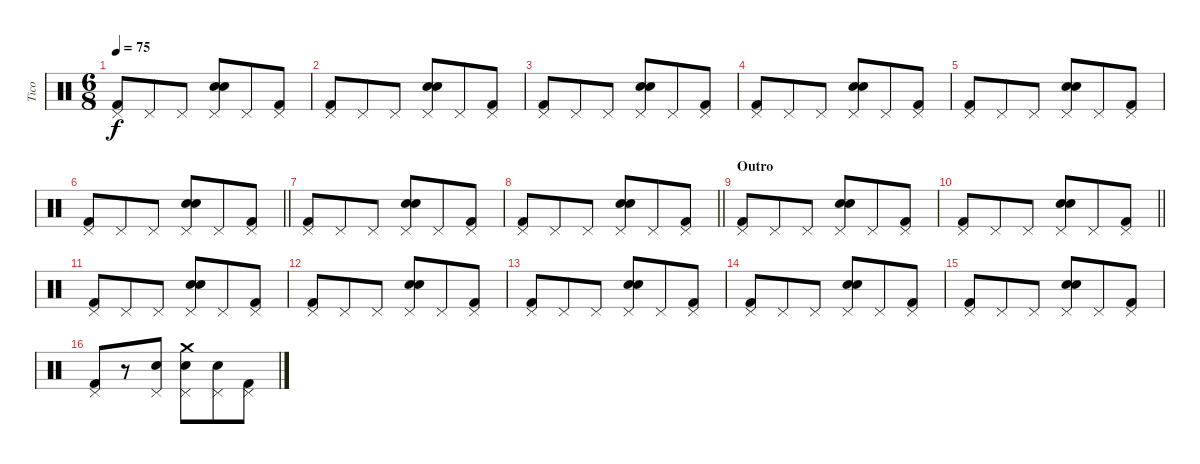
\track ("Tico" "Tico") {instrument percussion}
\staff {score}
\articulation defaults
\ts (6 8)
\tempo 75
\clef neutral
\ks c
("Kick (hit) 2" "Pedal Hi-Hat (hit)").8{dy f} "Pedal Hi-Hat (hit)".8 "Pedal Hi-Hat (hit)".8 ("Electric Snare (hit)" "Snare (hit) 2" "Pedal Hi-Hat (hit)").8 "Pedal Hi-Hat (hit)".8 ("Kick (hit) 2" "Pedal Hi-Hat (hit)").8 |
("Kick (hit) 2" "Pedal Hi-Hat (hit)").8 "Pedal Hi-Hat (hit)".8 "Pedal Hi-Hat (hit)".8 ("Electric Snare (hit)" "Snare (hit) 2" "Pedal Hi-Hat (hit)").8 "Pedal Hi-Hat (hit)".8 ("Kick (hit) 2" "Pedal Hi-Hat (hit)").8 |
("Kick (hit) 2" "Pedal Hi-Hat (hit)").8 "Pedal Hi-Hat (hit)".8 "Pedal Hi-Hat (hit)".8 ("Electric Snare (hit)" "Snare (hit) 2" "Pedal Hi-Hat (hit)").8 "Pedal Hi-Hat (hit)".8 ("Kick (hit) 2" "Pedal Hi-Hat (hit)").8 |
("Kick (hit) 2" "Pedal Hi-Hat (hit)").8 "Pedal Hi-Hat (hit)".8 "Pedal Hi-Hat (hit)".8 ("Electric Snare (hit)" "Snare (hit) 2" "Pedal Hi-Hat (hit)").8 "Pedal Hi-Hat (hit)".8 ("Kick (hit) 2" "Pedal Hi-Hat (hit)").8 |
("Kick (hit) 2" "Pedal Hi-Hat (hit)").8 "Pedal Hi-Hat (hit)".8 "Pedal Hi-Hat (hit)".8 ("Electric Snare (hit)" "Snare (hit) 2" "Pedal Hi-Hat (hit)").8 "Pedal Hi-Hat (hit)".8 ("Kick (hit) 2" "Pedal Hi-Hat (hit)").8 |
\barLineRight lightlight
("Kick (hit) 2" "Pedal Hi-Hat (hit)").8 "Pedal Hi-Hat (hit)".8 "Pedal Hi-Hat (hit)".8 ("Electric Snare (hit)" "Snare (hit) 2" "Pedal Hi-Hat (hit)").8 "Pedal Hi-Hat (hit)".8 ("Kick (hit) 2" "Pedal Hi-Hat (hit)").8 |
("Kick (hit) 2" "Pedal Hi-Hat (hit)").8 "Pedal Hi-Hat (hit)".8 "Pedal Hi-Hat (hit)".8 ("Electric Snare (hit)" "Snare (hit) 2" "Pedal Hi-Hat (hit)").8 "Pedal Hi-Hat (hit)".8 ("Kick (hit) 2" "Pedal Hi-Hat (hit)").8 |
\barLineRight lightlight
("Kick (hit) 2" "Pedal Hi-Hat (hit)").8 "Pedal Hi-Hat (hit)".8 "Pedal Hi-Hat (hit)".8 ("Electric Snare (hit)" "Snare (hit) 2" "Pedal Hi-Hat (hit)").8 "Pedal Hi-Hat (hit)".8 ("Kick (hit) 2" "Pedal Hi-Hat (hit)").8 |
\section ("" "Outro")
("Kick (hit) 2" "Pedal Hi-Hat (hit)").8 "Pedal Hi-Hat (hit)".8 "Pedal Hi-Hat (hit)".8 ("Electric Snare (hit)" "Snare (hit) 2" "Pedal Hi-Hat (hit)").8 "Pedal Hi-Hat (hit)".8 ("Kick (hit) 2" "Pedal Hi-Hat (hit)").8 |
\barLineRight lightlight
("Kick (hit) 2" "Pedal Hi-Hat (hit)").8 "Pedal Hi-Hat (hit)".8 "Pedal Hi-Hat (hit)".8 ("Electric Snare (hit)" "Snare (hit) 2" "Pedal Hi-Hat (hit)").8 "Pedal Hi-Hat (hit)".8 ("Kick (hit) 2" "Pedal Hi-Hat (hit)").8 |
("Kick (hit) 2" "Pedal Hi-Hat (hit)").8 "Pedal Hi-Hat (hit)".8 "Pedal Hi-Hat (hit)".8 ("Electric Snare (hit)" "Snare (hit) 2" "Pedal Hi-Hat (hit)").8 "Pedal Hi-Hat (hit)".8 ("Kick (hit) 2" "Pedal Hi-Hat (hit)").8 |
("Kick (hit) 2" "Pedal Hi-Hat (hit)").8 "Pedal Hi-Hat (hit)".8 "Pedal Hi-Hat (hit)".8 ("Electric Snare (hit)" "Snare (hit) 2" "Pedal Hi-Hat (hit)").8 "Pedal Hi-Hat (hit)".8 ("Kick (hit) 2" "Pedal Hi-Hat (hit)").8 |
("Kick (hit) 2" "Pedal Hi-Hat (hit)").8 "Pedal Hi-Hat (hit)".8 "Pedal Hi-Hat (hit)".8 ("Electric Snare (hit)" "Snare (hit) 2" "Pedal Hi-Hat (hit)").8 "Pedal Hi-Hat (hit)".8 ("Kick (hit) 2" "Pedal Hi-Hat (hit)").8 |
("Kick (hit) 2" "Pedal Hi-Hat (hit)").8 "Pedal Hi-Hat (hit)".8 "Pedal Hi-Hat (hit)".8 ("Electric Snare (hit)" "Snare (hit) 2" "Pedal Hi-Hat (hit)").8 "Pedal Hi-Hat (hit)".8 ("Kick (hit) 2" "Pedal Hi-Hat (hit)").8 |
("Kick (hit) 2" "Pedal Hi-Hat (hit)").8 "Pedal Hi-Hat (hit)".8 "Pedal Hi-Hat (hit)".8 ("Electric Snare (hit)" "Snare (hit) 2" "Pedal Hi-Hat (hit)").8 "Pedal Hi-Hat (hit)".8 ("Kick (hit) 2" "Pedal Hi-Hat (hit)").8 |
("Kick (hit) 2" "Pedal Hi-Hat (hit)").8 r.8 ("Snare (hit) 2" "Pedal Hi-Hat (hit)").8 ("Crash medium (hit)" "Snare (hit) 2" "Pedal Hi-Hat (hit)").8 ("Snare (hit) 2" "Pedal Hi-Hat (hit)").8 ("Kick (hit) 2" "Pedal Hi-Hat (hit)").8
